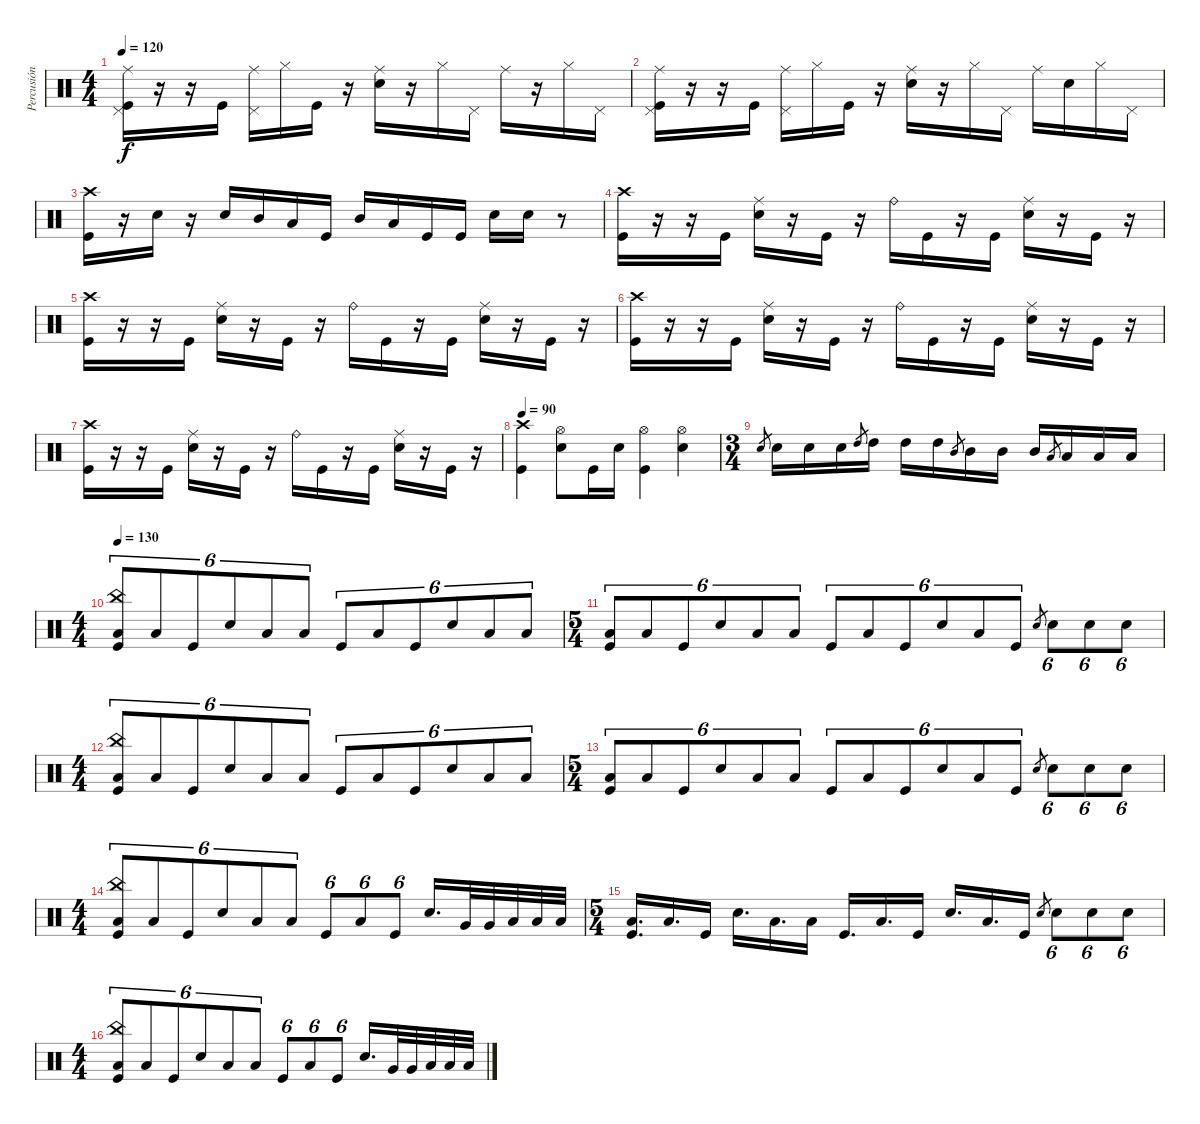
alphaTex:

\track ("Percusión" "Percusión") {instrument percussion}
\staff {score}
\articulation defaults
\ts (4 4)
\tempo 120
\clef neutral
\ks c
("Ride (middle)" "Pedal Hi-Hat (hit)" "Kick (hit)").16{dy f} r.16 r.16 "Kick (hit)".16 ("Ride (middle)" "Pedal Hi-Hat (hit)").16 "Hi-Hat (closed)".16 "Kick (hit)".16 r.16 ("Ride (middle)" "Snare (hit) 2").16 r.16 "Hi-Hat (closed)".16 "Pedal Hi-Hat (hit)".16 "Ride (middle)".16 r.16 "Hi-Hat (closed)".16 "Pedal Hi-Hat (hit)".16 |
("Ride (middle)" "Pedal Hi-Hat (hit)" "Kick (hit)").16 r.16 r.16 "Kick (hit)".16 ("Ride (middle)" "Pedal Hi-Hat (hit)").16 "Hi-Hat (closed)".16 "Kick (hit)".16 r.16 ("Ride (middle)" "Snare (hit) 2").16 r.16 "Hi-Hat (closed)".16 "Pedal Hi-Hat (hit)".16 "Ride (middle)".16 "Snare (hit) 2".16 "Hi-Hat (closed)".16 "Pedal Hi-Hat (hit)".16 |
("Crash high (hit)" "Kick (hit)").16 r.16 "Snare (hit) 2".16 r.16 "Snare (hit) 2".16 "Mid Tom (hit)".16 "Low Tom (hit)".16 "Kick (hit)".16 "Mid Tom (hit)".16 "Low Tom (hit)".16 "Kick (hit)".16 "Kick (hit)".16 "Snare (hit) 2".16 "Snare (hit) 2".16 r.8 |
("Crash high (hit)" "Kick (hit)").16 r.16 r.16 "Kick (hit)".16 ("Ride (middle)" "Snare (hit) 2").16 r.16 "Kick (hit)".16 r.16 "Ride (bell)".16 "Kick (hit)".16 r.16 "Kick (hit)".16 ("Ride (middle)" "Snare (hit) 2").16 r.16 "Kick (hit)".16 r.16 |
("Crash high (hit)" "Kick (hit)").16 r.16 r.16 "Kick (hit)".16 ("Ride (middle)" "Snare (hit) 2").16 r.16 "Kick (hit)".16 r.16 "Ride (bell)".16 "Kick (hit)".16 r.16 "Kick (hit)".16 ("Ride (middle)" "Snare (hit) 2").16 r.16 "Kick (hit)".16 r.16 |
("Crash high (hit)" "Kick (hit)").16 r.16 r.16 "Kick (hit)".16 ("Ride (middle)" "Snare (hit) 2").16 r.16 "Kick (hit)".16 r.16 "Ride (bell)".16 "Kick (hit)".16 r.16 "Kick (hit)".16 ("Ride (middle)" "Snare (hit) 2").16 r.16 "Kick (hit)".16 r.16 |
("Crash high (hit)" "Kick (hit)").16 r.16 r.16 "Kick (hit)".16 ("Ride (middle)" "Snare (hit) 2").16 r.16 "Kick (hit)".16 r.16 "Ride (bell)".16 "Kick (hit)".16 r.16 "Kick (hit)".16 ("Ride (middle)" "Snare (hit) 2").16 r.16 "Kick (hit)".16 r.16 |
\tempo 90
("Crash high (hit)" "Kick (hit)").4 ("Hi-Hat (open)" "Snare (hit) 2").8 "Kick (hit)".16 "Snare (hit) 2".16 ("Hi-Hat (open)" "Kick (hit)").4 ("Hi-Hat (open)" "Snare (hit) 2").4 |
\ts (3 4)
"Snare (hit) 2".8{gr} "Snare (hit) 2".16 "Snare (hit) 2".16 "Snare (hit) 2".16 "High Tom (hit)".8{gr} "High Tom (hit)".16 "High Tom (hit)".16 "High Tom (hit)".16 "Mid Tom (hit)".8{gr} "Mid Tom (hit)".16 "Mid Tom (hit)".16 "Mid Tom (hit)".16 "Low Tom (hit)".8{gr} "Low Tom (hit)".16 "Low Tom (hit)".16 "Low Tom (hit)".16 |
\ts (4 4)
\tempo 130
("China (hit)" "Low Floor Tom (hit)" "Kick (hit)").8{tu (6 4)} "Low Floor Tom (hit)".8{tu (6 4)} "Kick (hit)".8{tu (6 4)} "Snare (hit) 2".8{tu (6 4)} "Low Floor Tom (hit)".8{tu (6 4)} "Low Floor Tom (hit)".8{tu (6 4)} "Kick (hit)".8{tu (6 4)} "Low Floor Tom (hit)".8{tu (6 4)} "Kick (hit)".8{tu (6 4)} "Snare (hit) 2".8{tu (6 4)} "Low Floor Tom (hit)".8{tu (6 4)} "Low Floor Tom (hit)".8{tu (6 4)} |
\ts (5 4)
("Low Floor Tom (hit)" "Kick (hit)").8{tu (6 4)} "Low Floor Tom (hit)".8{tu (6 4)} "Kick (hit)".8{tu (6 4)} "Snare (hit) 2".8{tu (6 4)} "Low Floor Tom (hit)".8{tu (6 4)} "Low Floor Tom (hit)".8{tu (6 4)} "Kick (hit)".8{tu (6 4)} "Low Floor Tom (hit)".8{tu (6 4)} "Kick (hit)".8{tu (6 4)} "Snare (hit) 2".8{tu (6 4)} "Low Floor Tom (hit)".8{tu (6 4)} "Kick (hit)".8{tu (6 4)} "Snare (hit) 2".8{gr} "Snare (hit) 2".8{tu (6 4)} "Snare (hit) 2".8{tu (6 4)} "Snare (hit) 2".8{tu (6 4)} |
\ts (4 4)
("China (hit)" "Low Floor Tom (hit)" "Kick (hit)").8{tu (6 4)} "Low Floor Tom (hit)".8{tu (6 4)} "Kick (hit)".8{tu (6 4)} "Snare (hit) 2".8{tu (6 4)} "Low Floor Tom (hit)".8{tu (6 4)} "Low Floor Tom (hit)".8{tu (6 4)} "Kick (hit)".8{tu (6 4)} "Low Floor Tom (hit)".8{tu (6 4)} "Kick (hit)".8{tu (6 4)} "Snare (hit) 2".8{tu (6 4)} "Low Floor Tom (hit)".8{tu (6 4)} "Low Floor Tom (hit)".8{tu (6 4)} |
\ts (5 4)
("Low Floor Tom (hit)" "Kick (hit)").8{tu (6 4)} "Low Floor Tom (hit)".8{tu (6 4)} "Kick (hit)".8{tu (6 4)} "Snare (hit) 2".8{tu (6 4)} "Low Floor Tom (hit)".8{tu (6 4)} "Low Floor Tom (hit)".8{tu (6 4)} "Kick (hit)".8{tu (6 4)} "Low Floor Tom (hit)".8{tu (6 4)} "Kick (hit)".8{tu (6 4)} "Snare (hit) 2".8{tu (6 4)} "Low Floor Tom (hit)".8{tu (6 4)} "Kick (hit)".8{tu (6 4)} "Snare (hit) 2".8{gr} "Snare (hit) 2".8{tu (6 4)} "Snare (hit) 2".8{tu (6 4)} "Snare (hit) 2".8{tu (6 4)} |
\ts (4 4)
("China (hit)" "Low Floor Tom (hit)" "Kick (hit)").8{tu (6 4)} "Low Floor Tom (hit)".8{tu (6 4)} "Kick (hit)".8{tu (6 4)} "Snare (hit) 2".8{tu (6 4)} "Low Floor Tom (hit)".8{tu (6 4)} "Low Floor Tom (hit)".8{tu (6 4)} "Kick (hit)".8{tu (6 4)} "Low Floor Tom (hit)".8{tu (6 4)} "Kick (hit)".8{tu (6 4)} "Snare (hit) 2".16{d} "Very Low Tom (hit)".32 "Very Low Tom (hit)".32 "Low Floor Tom (hit)".32 "Low Floor Tom (hit)".32 "Low Floor Tom (hit)".32 |
\ts (5 4)
("Low Floor Tom (hit)" "Kick (hit)").16{d} "Low Floor Tom (hit)".16{d} "Kick (hit)".16 "Snare (hit) 2".16{d} "Low Floor Tom (hit)".16{d} "Low Floor Tom (hit)".16 "Kick (hit)".16{d} "Low Floor Tom (hit)".16{d} "Kick (hit)".16 "Snare (hit) 2".16{d} "Low Floor Tom (hit)".16{d} "Kick (hit)".16 "Snare (hit) 2".8{gr} "Snare (hit) 2".8{tu (6 4)} "Snare (hit) 2".8{tu (6 4)} "Snare (hit) 2".8{tu (6 4)} |
\ts (4 4)
("China (hit)" "Low Floor Tom (hit)" "Kick (hit)").8{tu (6 4)} "Low Floor Tom (hit)".8{tu (6 4)} "Kick (hit)".8{tu (6 4)} "Snare (hit) 2".8{tu (6 4)} "Low Floor Tom (hit)".8{tu (6 4)} "Low Floor Tom (hit)".8{tu (6 4)} "Kick (hit)".8{tu (6 4)} "Low Floor Tom (hit)".8{tu (6 4)} "Kick (hit)".8{tu (6 4)} "Snare (hit) 2".16{d} "Very Low Tom (hit)".32 "Very Low Tom (hit)".32 "Low Floor Tom (hit)".32 "Low Floor Tom (hit)".32 "Low Floor Tom (hit)".32
